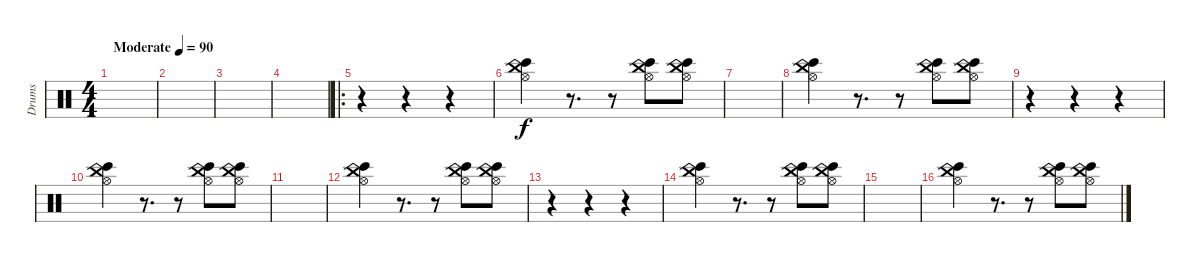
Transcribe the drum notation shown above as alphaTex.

\track ("Drums" "Drums") {instrument percussion}
\staff {score}
\articulation defaults
\ts (4 4)
\tempo (90 "Moderate")
\clef neutral
\ks c
|
|
|
|
\ro
r.4 r.4 r.4 |
("China (hit)" "Hi-Hat (open)" "Bongo High (hit)").4 r.8{d} r.8 ("China (hit)" "Hi-Hat (open)" "Bongo High (hit)").8 ("China (hit)" "Hi-Hat (open)" "Bongo High (hit)").8 |
|
("China (hit)" "Hi-Hat (open)" "Bongo High (hit)").4 r.8{d} r.8 ("China (hit)" "Hi-Hat (open)" "Bongo High (hit)").8 ("China (hit)" "Hi-Hat (open)" "Bongo High (hit)").8 |
r.4 r.4 r.4 |
("China (hit)" "Hi-Hat (open)" "Bongo High (hit)").4 r.8{d} r.8 ("China (hit)" "Hi-Hat (open)" "Bongo High (hit)").8 ("China (hit)" "Hi-Hat (open)" "Bongo High (hit)").8 |
|
("China (hit)" "Hi-Hat (open)" "Bongo High (hit)").4 r.8{d} r.8 ("China (hit)" "Hi-Hat (open)" "Bongo High (hit)").8 ("China (hit)" "Hi-Hat (open)" "Bongo High (hit)").8 |
r.4 r.4 r.4 |
("China (hit)" "Hi-Hat (open)" "Bongo High (hit)").4 r.8{d} r.8 ("China (hit)" "Hi-Hat (open)" "Bongo High (hit)").8 ("China (hit)" "Hi-Hat (open)" "Bongo High (hit)").8 |
|
("China (hit)" "Hi-Hat (open)" "Bongo High (hit)").4 r.8{d} r.8 ("China (hit)" "Hi-Hat (open)" "Bongo High (hit)").8 ("China (hit)" "Hi-Hat (open)" "Bongo High (hit)").8
